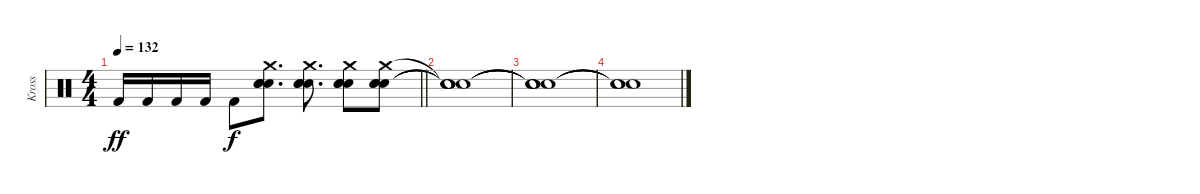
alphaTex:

\track ("Kross" "Kross") {instrument percussion}
\staff {score}
\articulation defaults
\ts (4 4)
\tempo 132
\clef neutral
\barLineRight lightlight
\ks c "Kick (hit) 2".16{dy ff} "Kick (hit) 2".16 "Kick (hit) 2".16 "Kick (hit) 2".16 "Kick (hit) 2".8{dy f}
("Crash medium (hit)" "Electric Snare (hit)" "Electric Snare (hit)" "Electric Snare (hit)").8{d} ("Crash medium (hit)" "Electric Snare (hit)" "Electric Snare (hit)" "Electric Snare (hit)").8{d} ("Crash medium (hit)" "Electric Snare (hit)" "Electric Snare (hit)" "Electric Snare (hit)").8 ("Crash medium (hit)" "Electric Snare (hit)" "Electric Snare (hit)" "Electric Snare (hit)").8 |
("Snare (hit)"{t} "Snare (hit)"{t} "Snare (hit)"{t} "Snare (hit)"{t}).1 |
("Snare (hit)"{t} "Snare (hit)"{t} "Snare (hit)"{t} "Snare (hit)"{t}).1 |
("Snare (hit)"{t} "Snare (hit)"{t} "Snare (hit)"{t}).1
